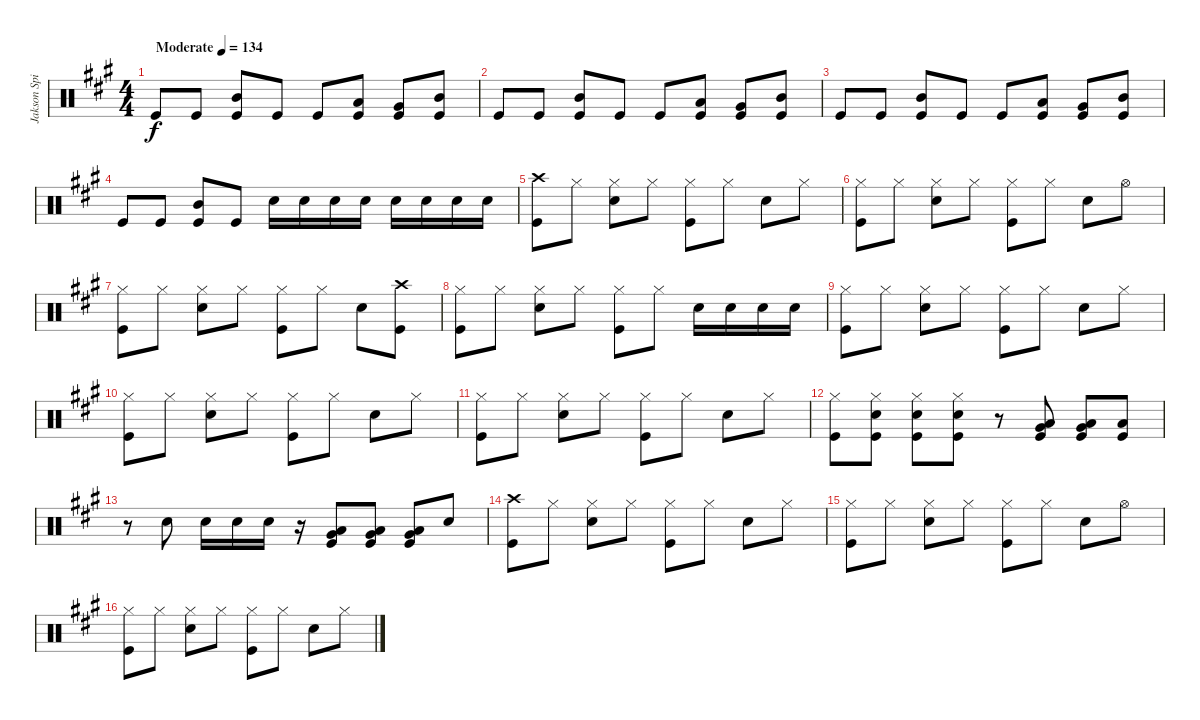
\track ("Jakson Spires Drums" "Jakson Spi") {instrument percussion}
\staff {score}
\articulation defaults
\ts (4 4)
\tempo (134 "Moderate")
\clef neutral
\ks a "Kick (hit)".8{dy f} "Kick (hit)".8
("Mid Tom (hit)" "Kick (hit)").8 "Kick (hit)".8 "Kick (hit)".8 ("Low Tom (hit)" "Kick (hit)").8 ("Very Low Tom (hit)" "Kick (hit)").8 ("Mid Tom (hit)" "Kick (hit)").8 |
"Kick (hit)".8 "Kick (hit)".8 ("Mid Tom (hit)" "Kick (hit)").8 "Kick (hit)".8 "Kick (hit)".8 ("Low Tom (hit)" "Kick (hit)").8 ("Very Low Tom (hit)" "Kick (hit)").8 ("Mid Tom (hit)" "Kick (hit)").8 |
"Kick (hit)".8 "Kick (hit)".8 ("Mid Tom (hit)" "Kick (hit)").8 "Kick (hit)".8 "Kick (hit)".8 ("Low Tom (hit)" "Kick (hit)").8 ("Very Low Tom (hit)" "Kick (hit)").8 ("Mid Tom (hit)" "Kick (hit)").8 |
"Kick (hit)".8 "Kick (hit)".8 ("Mid Tom (hit)" "Kick (hit)").8 "Kick (hit)".8 "Snare (hit) 2".16 "Snare (hit) 2".16 "Snare (hit) 2".16 "Snare (hit) 2".16 "Snare (hit) 2".16 "Snare (hit) 2".16 "Snare (hit) 2".16 "Snare (hit) 2".16 |
("Crash high (hit)" "Kick (hit)").8 "Hi-Hat (closed)".8 ("Hi-Hat (closed)" "Snare (hit) 2").8 "Hi-Hat (closed)".8 ("Hi-Hat (closed)" "Kick (hit)").8 "Hi-Hat (closed)".8 "Snare (hit) 2".8 "Hi-Hat (closed)".8 |
("Hi-Hat (closed)" "Kick (hit)").8 "Hi-Hat (closed)".8 ("Hi-Hat (closed)" "Snare (hit) 2").8 "Hi-Hat (closed)".8 ("Hi-Hat (closed)" "Kick (hit)").8 "Hi-Hat (closed)".8 "Snare (hit) 2".8 "Hi-Hat (open)".8 |
("Hi-Hat (closed)" "Kick (hit)").8 "Hi-Hat (closed)".8 ("Hi-Hat (closed)" "Snare (hit) 2").8 "Hi-Hat (closed)".8 ("Hi-Hat (closed)" "Kick (hit)").8 "Hi-Hat (closed)".8 "Snare (hit) 2".8 ("Crash high (hit)" "Kick (hit)").8 |
("Hi-Hat (closed)" "Kick (hit)").8 "Hi-Hat (closed)".8 ("Hi-Hat (closed)" "Snare (hit) 2").8 "Hi-Hat (closed)".8 ("Hi-Hat (closed)" "Kick (hit)").8 "Hi-Hat (closed)".8 "Snare (hit) 2".16 "Snare (hit) 2".16 "Snare (hit) 2".16 "Snare (hit) 2".16 |
("Hi-Hat (closed)" "Kick (hit)").8 "Hi-Hat (closed)".8 ("Hi-Hat (closed)" "Snare (hit) 2").8 "Hi-Hat (closed)".8 ("Hi-Hat (closed)" "Kick (hit)").8 "Hi-Hat (closed)".8 "Snare (hit) 2".8 "Hi-Hat (closed)".8 |
("Hi-Hat (closed)" "Kick (hit)").8 "Hi-Hat (closed)".8 ("Hi-Hat (closed)" "Snare (hit) 2").8 "Hi-Hat (closed)".8 ("Hi-Hat (closed)" "Kick (hit)").8 "Hi-Hat (closed)".8 "Snare (hit) 2".8 "Hi-Hat (closed)".8 |
("Hi-Hat (closed)" "Kick (hit)").8 "Hi-Hat (closed)".8 ("Hi-Hat (closed)" "Snare (hit) 2").8 "Hi-Hat (closed)".8 ("Hi-Hat (closed)" "Kick (hit)").8 "Hi-Hat (closed)".8 "Snare (hit) 2".8 "Hi-Hat (closed)".8 |
("Hi-Hat (closed)" "Kick (hit)").8 ("Hi-Hat (closed)" "Snare (hit) 2" "Kick (hit)").8 ("Hi-Hat (closed)" "Snare (hit) 2" "Kick (hit)").8 ("Hi-Hat (closed)" "Snare (hit) 2" "Kick (hit)").8 r.8 ("Low Tom (hit)" "Very Low Tom (hit)" "Kick (hit)").8 ("Low Tom (hit)" "Very Low Tom (hit)" "Kick (hit)").8 ("Low Tom (hit)" "Kick (hit)").8 |
r.8 "Snare (hit) 2".8 "Snare (hit) 2".16 "Snare (hit) 2".16 "Snare (hit) 2".16 r.16 ("Low Tom (hit)" "Very Low Tom (hit)" "Kick (hit)").8 ("Low Tom (hit)" "Very Low Tom (hit)" "Kick (hit)").8 ("Low Tom (hit)" "Very Low Tom (hit)" "Kick (hit)").8 "Snare (hit) 2".8 |
("Crash high (hit)" "Kick (hit)").8 "Hi-Hat (closed)".8 ("Hi-Hat (closed)" "Snare (hit) 2").8 "Hi-Hat (closed)".8 ("Hi-Hat (closed)" "Kick (hit)").8 "Hi-Hat (closed)".8 "Snare (hit) 2".8 "Hi-Hat (closed)".8 |
("Hi-Hat (closed)" "Kick (hit)").8 "Hi-Hat (closed)".8 ("Hi-Hat (closed)" "Snare (hit) 2").8 "Hi-Hat (closed)".8 ("Hi-Hat (closed)" "Kick (hit)").8 "Hi-Hat (closed)".8 "Snare (hit) 2".8 "Hi-Hat (open)".8 |
("Hi-Hat (closed)" "Kick (hit)").8 "Hi-Hat (closed)".8 ("Hi-Hat (closed)" "Snare (hit) 2").8 "Hi-Hat (closed)".8 ("Hi-Hat (closed)" "Kick (hit)").8 "Hi-Hat (closed)".8 "Snare (hit) 2".8 "Hi-Hat (closed)".8
